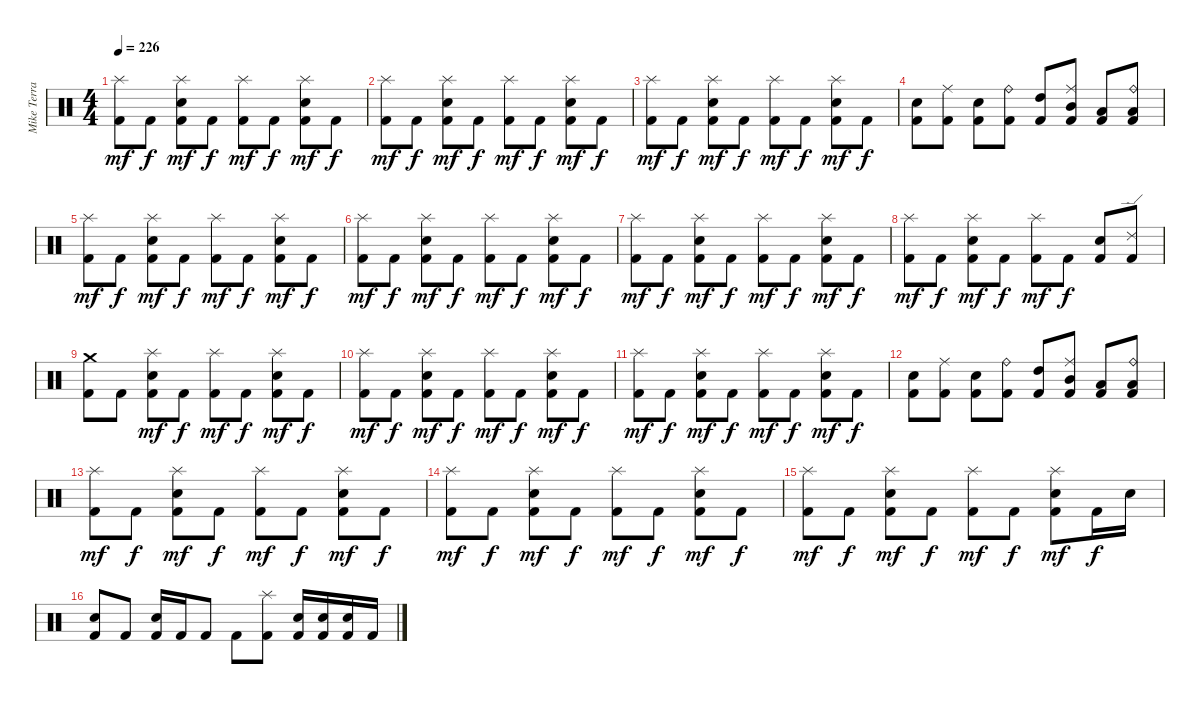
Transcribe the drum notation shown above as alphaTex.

\track ("Mike Terrana" "Mike Terra") {instrument percussion}
\staff {score}
\articulation defaults
\ts (4 4)
\tempo 226
\clef neutral
\ks c
("Splash (hit)" "Kick (hit) 2").8{dy mf} "Kick (hit) 2".8{dy f} ("Splash (hit)" "Snare (hit) 2" "Kick (hit) 2").8{dy mf} "Kick (hit) 2".8{dy f} ("Splash (hit)" "Kick (hit) 2").8{dy mf} "Kick (hit) 2".8{dy f} ("Splash (hit)" "Snare (hit) 2" "Kick (hit) 2").8{dy mf} "Kick (hit) 2".8{dy f} |
("Splash (hit)" "Kick (hit) 2").8{dy mf} "Kick (hit) 2".8{dy f} ("Splash (hit)" "Snare (hit) 2" "Kick (hit) 2").8{dy mf} "Kick (hit) 2".8{dy f} ("Splash (hit)" "Kick (hit) 2").8{dy mf} "Kick (hit) 2".8{dy f} ("Splash (hit)" "Snare (hit) 2" "Kick (hit) 2").8{dy mf} "Kick (hit) 2".8{dy f} |
("Splash (hit)" "Kick (hit) 2").8{dy mf} "Kick (hit) 2".8{dy f} ("Splash (hit)" "Snare (hit) 2" "Kick (hit) 2").8{dy mf} "Kick (hit) 2".8{dy f} ("Splash (hit)" "Kick (hit) 2").8{dy mf} "Kick (hit) 2".8{dy f} ("Splash (hit)" "Snare (hit) 2" "Kick (hit) 2").8{dy mf} "Kick (hit) 2".8{dy f} |
("Snare (hit) 2" "Kick (hit) 2").8 ("Ride (middle)" "Kick (hit) 2").8 ("Snare (hit) 2" "Kick (hit) 2").8 ("Ride (bell)" "Kick (hit) 2").8 ("High Tom (hit)" "Kick (hit) 2").8 ("Ride (middle)" "Mid Tom (hit)" "Kick (hit) 2").8 ("Low Tom (hit)" "Kick (hit) 2").8 ("Ride (bell)" "Low Tom (hit)" "Kick (hit) 2").8 |
("Splash (hit)" "Kick (hit) 2").8{dy mf} "Kick (hit) 2".8{dy f} ("Splash (hit)" "Snare (hit) 2" "Kick (hit) 2").8{dy mf} "Kick (hit) 2".8{dy f} ("Splash (hit)" "Kick (hit) 2").8{dy mf} "Kick (hit) 2".8{dy f} ("Splash (hit)" "Snare (hit) 2" "Kick (hit) 2").8{dy mf} "Kick (hit) 2".8{dy f} |
("Splash (hit)" "Kick (hit) 2").8{dy mf} "Kick (hit) 2".8{dy f} ("Splash (hit)" "Snare (hit) 2" "Kick (hit) 2").8{dy mf} "Kick (hit) 2".8{dy f} ("Splash (hit)" "Kick (hit) 2").8{dy mf} "Kick (hit) 2".8{dy f} ("Splash (hit)" "Snare (hit) 2" "Kick (hit) 2").8{dy mf} "Kick (hit) 2".8{dy f} |
("Splash (hit)" "Kick (hit) 2").8{dy mf} "Kick (hit) 2".8{dy f} ("Splash (hit)" "Snare (hit) 2" "Kick (hit) 2").8{dy mf} "Kick (hit) 2".8{dy f} ("Splash (hit)" "Kick (hit) 2").8{dy mf} "Kick (hit) 2".8{dy f} ("Splash (hit)" "Snare (hit) 2" "Kick (hit) 2").8{dy mf} "Kick (hit) 2".8{dy f} |
("Splash (hit)" "Kick (hit) 2").8{dy mf} "Kick (hit) 2".8{dy f} ("Splash (hit)" "Snare (hit) 2" "Kick (hit) 2").8{dy mf} "Kick (hit) 2".8{dy f} ("Splash (hit)" "Kick (hit) 2").8{dy mf} "Kick (hit) 2".8{dy f} ("Snare (hit) 2" "Kick (hit) 2").8 ("Ride (edge) 2" "Kick (hit) 2").8 |
("Crash medium (hit)" "Kick (hit) 2").8 "Kick (hit) 2".8 ("Splash (hit)" "Snare (hit) 2" "Kick (hit) 2").8{dy mf} "Kick (hit) 2".8{dy f} ("Splash (hit)" "Kick (hit) 2").8{dy mf} "Kick (hit) 2".8{dy f} ("Splash (hit)" "Snare (hit) 2" "Kick (hit) 2").8{dy mf} "Kick (hit) 2".8{dy f} |
("Splash (hit)" "Kick (hit) 2").8{dy mf} "Kick (hit) 2".8{dy f} ("Splash (hit)" "Snare (hit) 2" "Kick (hit) 2").8{dy mf} "Kick (hit) 2".8{dy f} ("Splash (hit)" "Kick (hit) 2").8{dy mf} "Kick (hit) 2".8{dy f} ("Splash (hit)" "Snare (hit) 2" "Kick (hit) 2").8{dy mf} "Kick (hit) 2".8{dy f} |
("Splash (hit)" "Kick (hit) 2").8{dy mf} "Kick (hit) 2".8{dy f} ("Splash (hit)" "Snare (hit) 2" "Kick (hit) 2").8{dy mf} "Kick (hit) 2".8{dy f} ("Splash (hit)" "Kick (hit) 2").8{dy mf} "Kick (hit) 2".8{dy f} ("Splash (hit)" "Snare (hit) 2" "Kick (hit) 2").8{dy mf} "Kick (hit) 2".8{dy f} |
("Snare (hit) 2" "Kick (hit) 2").8 ("Ride (middle)" "Kick (hit) 2").8 ("Snare (hit) 2" "Kick (hit) 2").8 ("Ride (bell)" "Kick (hit) 2").8 ("High Tom (hit)" "Kick (hit) 2").8 ("Ride (middle)" "Mid Tom (hit)" "Kick (hit) 2").8 ("Low Tom (hit)" "Kick (hit) 2").8 ("Ride (bell)" "Low Tom (hit)" "Kick (hit) 2").8 |
("Splash (hit)" "Kick (hit) 2").8{dy mf} "Kick (hit) 2".8{dy f} ("Splash (hit)" "Snare (hit) 2" "Kick (hit) 2").8{dy mf} "Kick (hit) 2".8{dy f} ("Splash (hit)" "Kick (hit) 2").8{dy mf} "Kick (hit) 2".8{dy f} ("Splash (hit)" "Snare (hit) 2" "Kick (hit) 2").8{dy mf} "Kick (hit) 2".8{dy f} |
("Splash (hit)" "Kick (hit) 2").8{dy mf} "Kick (hit) 2".8{dy f} ("Splash (hit)" "Snare (hit) 2" "Kick (hit) 2").8{dy mf} "Kick (hit) 2".8{dy f} ("Splash (hit)" "Kick (hit) 2").8{dy mf} "Kick (hit) 2".8{dy f} ("Splash (hit)" "Snare (hit) 2" "Kick (hit) 2").8{dy mf} "Kick (hit) 2".8{dy f} |
("Splash (hit)" "Kick (hit) 2").8{dy mf} "Kick (hit) 2".8{dy f} ("Splash (hit)" "Snare (hit) 2" "Kick (hit) 2").8{dy mf} "Kick (hit) 2".8{dy f} ("Splash (hit)" "Kick (hit) 2").8{dy mf} "Kick (hit) 2".8{dy f} ("Splash (hit)" "Snare (hit) 2" "Kick (hit) 2").8{dy mf} "Kick (hit) 2".16{dy f} "Snare (hit) 2".16 |
("Snare (hit) 2" "Kick (hit) 2").8 "Kick (hit) 2".8 ("Snare (hit) 2" "Kick (hit) 2").16 "Kick (hit) 2".16 "Kick (hit) 2".8 "Kick (hit) 2".8 ("Splash (hit)" "Kick (hit) 2").8 ("Snare (hit) 2" "Kick (hit) 2").16 ("Snare (hit) 2" "Kick (hit) 2").16 ("Snare (hit) 2" "Kick (hit) 2").16 "Kick (hit) 2".16
